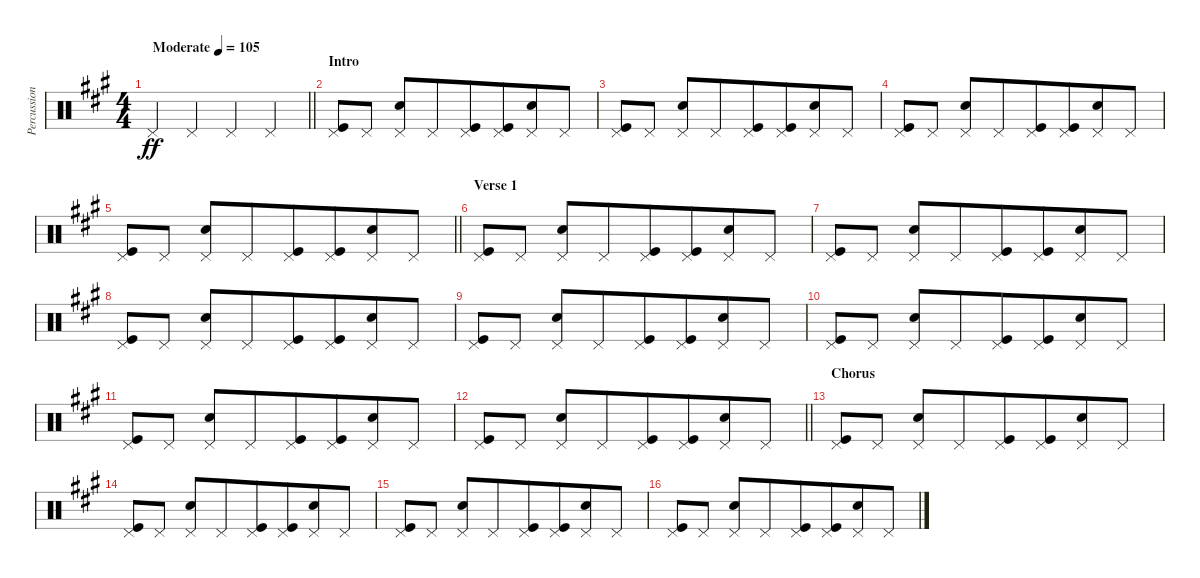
\track ("Percussion" "Percussion") {instrument percussion}
\staff {score}
\articulation defaults
\ts (4 4)
\tempo (105 "Moderate")
\clef neutral
\barLineRight lightlight
\ks a "Pedal Hi-Hat (hit)".4{dy ff beam merge} "Pedal Hi-Hat (hit)".4{beam merge} "Pedal Hi-Hat (hit)".4 "Pedal Hi-Hat (hit)".4
|
\section ("" "Intro")
("Kick (hit)" "Pedal Hi-Hat (hit)").8{beam merge} "Pedal Hi-Hat (hit)".8 ("Electric Snare (hit)" "Pedal Hi-Hat (hit)").8 "Pedal Hi-Hat (hit)".8{beam merge} ("Kick (hit)" "Pedal Hi-Hat (hit)").8{beam merge} ("Kick (hit)" "Pedal Hi-Hat (hit)").8{beam merge} ("Electric Snare (hit)" "Pedal Hi-Hat (hit)").8{beam merge} "Pedal Hi-Hat (hit)".8 |
("Kick (hit)" "Pedal Hi-Hat (hit)").8{beam merge} "Pedal Hi-Hat (hit)".8 ("Electric Snare (hit)" "Pedal Hi-Hat (hit)").8 "Pedal Hi-Hat (hit)".8{beam merge} ("Kick (hit)" "Pedal Hi-Hat (hit)").8{beam merge} ("Kick (hit)" "Pedal Hi-Hat (hit)").8{beam merge} ("Electric Snare (hit)" "Pedal Hi-Hat (hit)").8{beam merge} "Pedal Hi-Hat (hit)".8 |
("Kick (hit)" "Pedal Hi-Hat (hit)").8{beam merge} "Pedal Hi-Hat (hit)".8 ("Electric Snare (hit)" "Pedal Hi-Hat (hit)").8 "Pedal Hi-Hat (hit)".8{beam merge} ("Kick (hit)" "Pedal Hi-Hat (hit)").8{beam merge} ("Kick (hit)" "Pedal Hi-Hat (hit)").8{beam merge} ("Electric Snare (hit)" "Pedal Hi-Hat (hit)").8{beam merge} "Pedal Hi-Hat (hit)".8 |
\barLineRight lightlight
("Kick (hit)" "Pedal Hi-Hat (hit)").8{beam merge} "Pedal Hi-Hat (hit)".8 ("Electric Snare (hit)" "Pedal Hi-Hat (hit)").8 "Pedal Hi-Hat (hit)".8{beam merge} ("Kick (hit)" "Pedal Hi-Hat (hit)").8{beam merge} ("Kick (hit)" "Pedal Hi-Hat (hit)").8{beam merge} ("Electric Snare (hit)" "Pedal Hi-Hat (hit)").8{beam merge} "Pedal Hi-Hat (hit)".8 |
\section ("" "Verse 1")
("Kick (hit)" "Pedal Hi-Hat (hit)").8{beam merge} "Pedal Hi-Hat (hit)".8 ("Electric Snare (hit)" "Pedal Hi-Hat (hit)").8 "Pedal Hi-Hat (hit)".8{beam merge} ("Kick (hit)" "Pedal Hi-Hat (hit)").8{beam merge} ("Kick (hit)" "Pedal Hi-Hat (hit)").8{beam merge} ("Electric Snare (hit)" "Pedal Hi-Hat (hit)").8{beam merge} "Pedal Hi-Hat (hit)".8 |
("Kick (hit)" "Pedal Hi-Hat (hit)").8{beam merge} "Pedal Hi-Hat (hit)".8 ("Electric Snare (hit)" "Pedal Hi-Hat (hit)").8 "Pedal Hi-Hat (hit)".8{beam merge} ("Kick (hit)" "Pedal Hi-Hat (hit)").8{beam merge} ("Kick (hit)" "Pedal Hi-Hat (hit)").8{beam merge} ("Electric Snare (hit)" "Pedal Hi-Hat (hit)").8{beam merge} "Pedal Hi-Hat (hit)".8 |
("Kick (hit)" "Pedal Hi-Hat (hit)").8{beam merge} "Pedal Hi-Hat (hit)".8 ("Electric Snare (hit)" "Pedal Hi-Hat (hit)").8 "Pedal Hi-Hat (hit)".8{beam merge} ("Kick (hit)" "Pedal Hi-Hat (hit)").8{beam merge} ("Kick (hit)" "Pedal Hi-Hat (hit)").8{beam merge} ("Electric Snare (hit)" "Pedal Hi-Hat (hit)").8{beam merge} "Pedal Hi-Hat (hit)".8 |
("Kick (hit)" "Pedal Hi-Hat (hit)").8{beam merge} "Pedal Hi-Hat (hit)".8 ("Electric Snare (hit)" "Pedal Hi-Hat (hit)").8 "Pedal Hi-Hat (hit)".8{beam merge} ("Kick (hit)" "Pedal Hi-Hat (hit)").8{beam merge} ("Kick (hit)" "Pedal Hi-Hat (hit)").8{beam merge} ("Electric Snare (hit)" "Pedal Hi-Hat (hit)").8{beam merge} "Pedal Hi-Hat (hit)".8 |
("Kick (hit)" "Pedal Hi-Hat (hit)").8{beam merge} "Pedal Hi-Hat (hit)".8 ("Electric Snare (hit)" "Pedal Hi-Hat (hit)").8 "Pedal Hi-Hat (hit)".8{beam merge} ("Kick (hit)" "Pedal Hi-Hat (hit)").8{beam merge} ("Kick (hit)" "Pedal Hi-Hat (hit)").8{beam merge} ("Electric Snare (hit)" "Pedal Hi-Hat (hit)").8{beam merge} "Pedal Hi-Hat (hit)".8 |
("Kick (hit)" "Pedal Hi-Hat (hit)").8{beam merge} "Pedal Hi-Hat (hit)".8 ("Electric Snare (hit)" "Pedal Hi-Hat (hit)").8 "Pedal Hi-Hat (hit)".8{beam merge} ("Kick (hit)" "Pedal Hi-Hat (hit)").8{beam merge} ("Kick (hit)" "Pedal Hi-Hat (hit)").8{beam merge} ("Electric Snare (hit)" "Pedal Hi-Hat (hit)").8{beam merge} "Pedal Hi-Hat (hit)".8 |
\barLineRight lightlight
("Kick (hit)" "Pedal Hi-Hat (hit)").8{beam merge} "Pedal Hi-Hat (hit)".8 ("Electric Snare (hit)" "Pedal Hi-Hat (hit)").8 "Pedal Hi-Hat (hit)".8{beam merge} ("Kick (hit)" "Pedal Hi-Hat (hit)").8{beam merge} ("Kick (hit)" "Pedal Hi-Hat (hit)").8{beam merge} ("Electric Snare (hit)" "Pedal Hi-Hat (hit)").8{beam merge} "Pedal Hi-Hat (hit)".8 |
\section ("" "Chorus")
("Kick (hit)" "Pedal Hi-Hat (hit)").8{beam merge} "Pedal Hi-Hat (hit)".8 ("Electric Snare (hit)" "Pedal Hi-Hat (hit)").8 "Pedal Hi-Hat (hit)".8{beam merge} ("Kick (hit)" "Pedal Hi-Hat (hit)").8{beam merge} ("Kick (hit)" "Pedal Hi-Hat (hit)").8{beam merge} ("Electric Snare (hit)" "Pedal Hi-Hat (hit)").8{beam merge} "Pedal Hi-Hat (hit)".8 |
("Kick (hit)" "Pedal Hi-Hat (hit)").8{beam merge} "Pedal Hi-Hat (hit)".8 ("Electric Snare (hit)" "Pedal Hi-Hat (hit)").8 "Pedal Hi-Hat (hit)".8{beam merge} ("Kick (hit)" "Pedal Hi-Hat (hit)").8{beam merge} ("Kick (hit)" "Pedal Hi-Hat (hit)").8{beam merge} ("Electric Snare (hit)" "Pedal Hi-Hat (hit)").8{beam merge} "Pedal Hi-Hat (hit)".8 |
("Kick (hit)" "Pedal Hi-Hat (hit)").8{beam merge} "Pedal Hi-Hat (hit)".8 ("Electric Snare (hit)" "Pedal Hi-Hat (hit)").8 "Pedal Hi-Hat (hit)".8{beam merge} ("Kick (hit)" "Pedal Hi-Hat (hit)").8{beam merge} ("Kick (hit)" "Pedal Hi-Hat (hit)").8{beam merge} ("Electric Snare (hit)" "Pedal Hi-Hat (hit)").8{beam merge} "Pedal Hi-Hat (hit)".8 |
("Kick (hit)" "Pedal Hi-Hat (hit)").8{beam merge} "Pedal Hi-Hat (hit)".8 ("Electric Snare (hit)" "Pedal Hi-Hat (hit)").8 "Pedal Hi-Hat (hit)".8{beam merge} ("Kick (hit)" "Pedal Hi-Hat (hit)").8{beam merge} ("Kick (hit)" "Pedal Hi-Hat (hit)").8{beam merge} ("Electric Snare (hit)" "Pedal Hi-Hat (hit)").8{beam merge} "Pedal Hi-Hat (hit)".8
